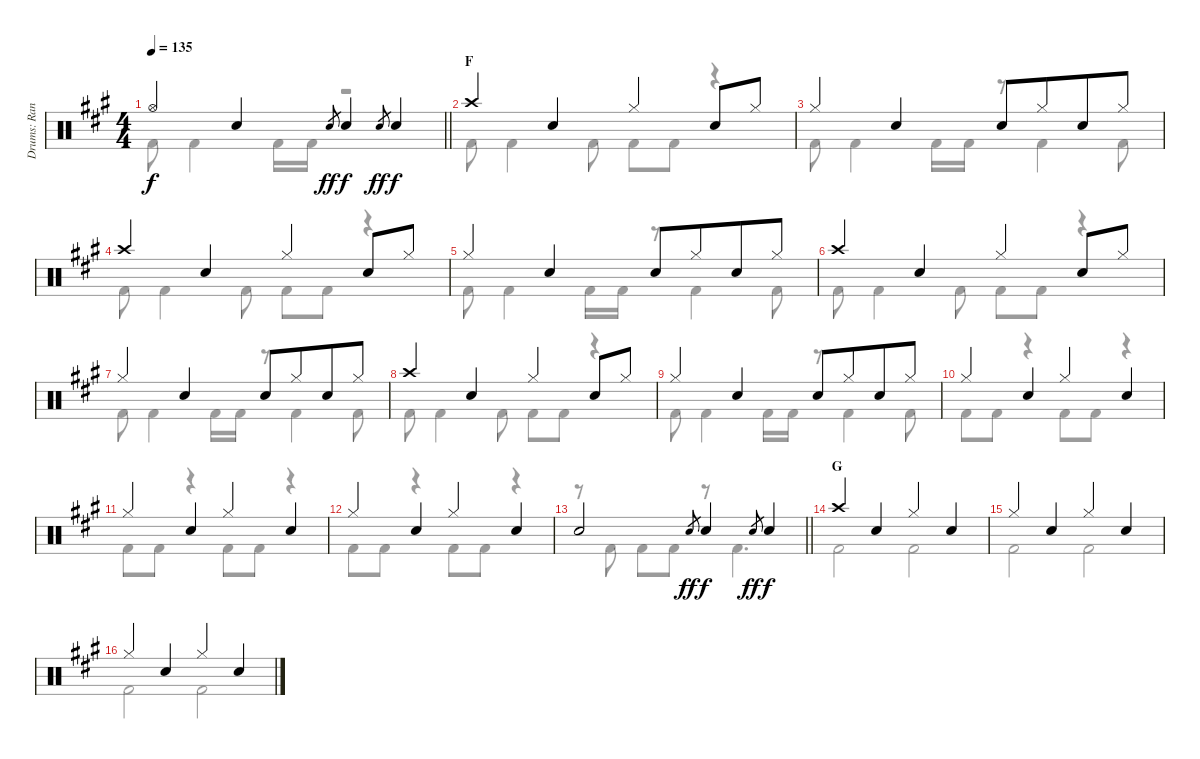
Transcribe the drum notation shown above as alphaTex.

\track ("Drums: Randy" "Drums: Ran") {instrument percussion}
\staff {score}
\articulation defaults
\voice
\ts (4 4)
\tempo 135
\clef neutral
\barLineRight lightlight
\ks a "Hi-Hat (open)".4{dy f} "Snare (hit) 2".4 "Electric Snare (hit)".8{gr dy ff} "Snare (hit) 2".4{dy f} "Electric Snare (hit)".8{gr dy ff} "Snare (hit) 2".4{dy f}
|
\section ("" "F")
"Crash high (hit)".4 "Snare (hit) 2".4 "Hi-Hat (closed)".4 "Snare (hit) 2".8 "Hi-Hat (closed)".8 |
"Hi-Hat (closed)".4 "Snare (hit) 2".4 "Snare (hit) 2".8 "Hi-Hat (closed)".8{beam merge} "Snare (hit) 2".8 "Hi-Hat (closed)".8 |
"Crash high (hit)".4 "Snare (hit) 2".4 "Hi-Hat (closed)".4 "Snare (hit) 2".8 "Hi-Hat (closed)".8 |
"Hi-Hat (closed)".4 "Snare (hit) 2".4 "Snare (hit) 2".8 "Hi-Hat (closed)".8{beam merge} "Snare (hit) 2".8 "Hi-Hat (closed)".8 |
"Crash high (hit)".4 "Snare (hit) 2".4 "Hi-Hat (closed)".4 "Snare (hit) 2".8 "Hi-Hat (closed)".8 |
"Hi-Hat (closed)".4 "Snare (hit) 2".4 "Snare (hit) 2".8 "Hi-Hat (closed)".8{beam merge} "Snare (hit) 2".8 "Hi-Hat (closed)".8 |
"Crash high (hit)".4 "Snare (hit) 2".4 "Hi-Hat (closed)".4 "Snare (hit) 2".8 "Hi-Hat (closed)".8 |
"Hi-Hat (closed)".4 "Snare (hit) 2".4 "Snare (hit) 2".8 "Hi-Hat (closed)".8{beam merge} "Snare (hit) 2".8 "Hi-Hat (closed)".8 |
"Hi-Hat (closed)".4 "Snare (hit) 2".4 "Hi-Hat (closed)".4 "Snare (hit) 2".4 |
"Hi-Hat (closed)".4 "Snare (hit) 2".4 "Hi-Hat (closed)".4 "Snare (hit) 2".4 |
"Hi-Hat (closed)".4 "Snare (hit) 2".4 "Hi-Hat (closed)".4 "Snare (hit) 2".4 |
\barLineRight lightlight "Snare (hit) 2".2 "Electric Snare (hit)".8{gr dy ff} "Snare (hit) 2".4{dy f} "Electric Snare (hit)".8{gr dy ff} "Snare (hit) 2".4{dy f}
|
\section ("" "G")
"Crash high (hit)".4 "Snare (hit) 2".4 "Hi-Hat (closed)".4 "Snare (hit) 2".4 |
"Hi-Hat (closed)".4 "Snare (hit) 2".4 "Hi-Hat (closed)".4 "Snare (hit) 2".4 |
"Hi-Hat (closed)".4 "Snare (hit) 2".4 "Hi-Hat (closed)".4 "Snare (hit) 2".4
\voice
\clef neutral
\ottava regular
\simile none
\barLineRight lightlight
\ks a "Kick (hit) 2".8{dy f} "Kick (hit) 2".4 "Kick (hit) 2".16 "Kick (hit) 2".16
r.2 |
"Kick (hit) 2".8 "Kick (hit) 2".4 "Kick (hit) 2".8 "Kick (hit) 2".8 "Kick (hit) 2".8 r.4 |
"Kick (hit) 2".8 "Kick (hit) 2".4 "Kick (hit) 2".16 "Kick (hit) 2".16 r.8 "Kick (hit) 2".4 "Kick (hit) 2".8 |
"Kick (hit) 2".8 "Kick (hit) 2".4 "Kick (hit) 2".8 "Kick (hit) 2".8 "Kick (hit) 2".8 r.4 |
"Kick (hit) 2".8 "Kick (hit) 2".4 "Kick (hit) 2".16 "Kick (hit) 2".16 r.8 "Kick (hit) 2".4 "Kick (hit) 2".8 |
"Kick (hit) 2".8 "Kick (hit) 2".4 "Kick (hit) 2".8 "Kick (hit) 2".8 "Kick (hit) 2".8 r.4 |
"Kick (hit) 2".8 "Kick (hit) 2".4 "Kick (hit) 2".16 "Kick (hit) 2".16 r.8 "Kick (hit) 2".4 "Kick (hit) 2".8 |
"Kick (hit) 2".8 "Kick (hit) 2".4 "Kick (hit) 2".8 "Kick (hit) 2".8 "Kick (hit) 2".8 r.4 |
"Kick (hit) 2".8 "Kick (hit) 2".4 "Kick (hit) 2".16 "Kick (hit) 2".16 r.8 "Kick (hit) 2".4 "Kick (hit) 2".8 |
"Kick (hit) 2".8 "Kick (hit) 2".8 r.4 "Kick (hit) 2".8 "Kick (hit) 2".8 r.4 |
"Kick (hit) 2".8 "Kick (hit) 2".8 r.4 "Kick (hit) 2".8 "Kick (hit) 2".8 r.4 |
"Kick (hit) 2".8 "Kick (hit) 2".8 r.4 "Kick (hit) 2".8 "Kick (hit) 2".8 r.4 |
\barLineRight lightlight
r.8 "Kick (hit) 2".8 "Kick (hit) 2".8 "Kick (hit) 2".8 r.8 "Kick (hit) 2".4{d} |
"Kick (hit) 2".2 "Kick (hit) 2".2 |
"Kick (hit) 2".2 "Kick (hit) 2".2 |
"Kick (hit) 2".2 "Kick (hit) 2".2
